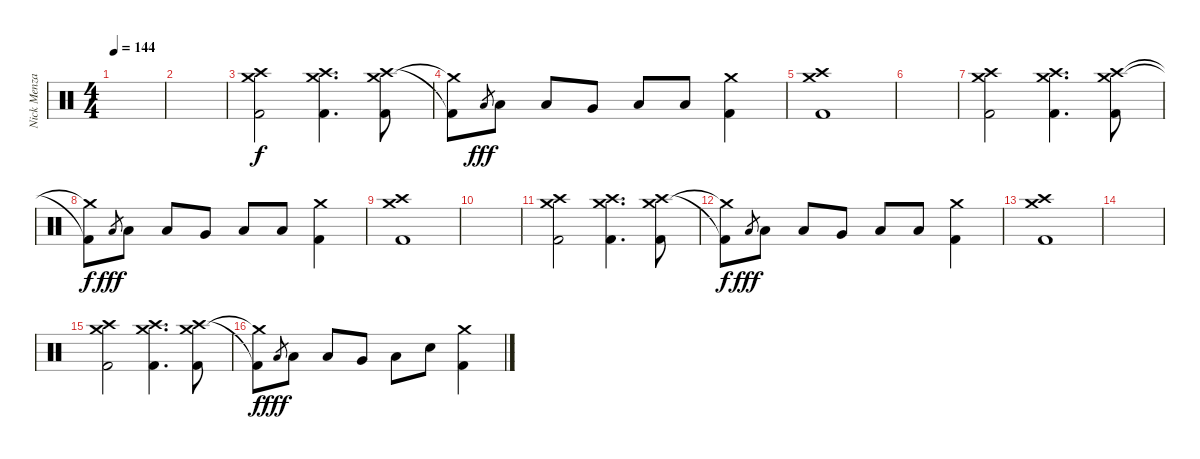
\track ("Nick Menza" "Nick Menza") {instrument percussion}
\staff {score}
\articulation defaults
\ts (4 4)
\tempo 144
\clef neutral
\ks c
|
|
("Crash high (hit)" "Crash medium (hit)" "Kick (hit) 2").2 ("Crash medium (hit)" "Crash high (hit)" "Kick (hit) 2").4{d} ("Crash high (hit)" "Crash medium (hit)" "Kick (hit) 2").8 |
("Kick (hit) 2"{t} "Crash medium (hit)"{t}).8{dy f} "Low Tom (hit)".8{gr dy fff} "Low Tom (hit)".8 "Low Tom (hit)".8 "Very Low Tom (hit)".8 "Low Floor Tom (hit)".8 "Low Floor Tom (hit)".8 ("Crash medium (hit)" "Kick (hit) 2").4 |
("Crash high (hit)" "Crash medium (hit)" "Kick (hit) 2").1 |
|
("Crash high (hit)" "Crash medium (hit)" "Kick (hit) 2").2 ("Crash medium (hit)" "Crash high (hit)" "Kick (hit) 2").4{d} ("Crash high (hit)" "Crash medium (hit)" "Kick (hit) 2").8 |
("Kick (hit) 2"{t} "Crash medium (hit)"{t}).8{dy f} "Low Tom (hit)".8{gr dy fff} "Low Tom (hit)".8 "Low Tom (hit)".8 "Very Low Tom (hit)".8 "Low Floor Tom (hit)".8 "Low Floor Tom (hit)".8 ("Crash medium (hit)" "Kick (hit) 2").4 |
("Crash high (hit)" "Crash medium (hit)" "Kick (hit) 2").1 |
|
("Crash high (hit)" "Crash medium (hit)" "Kick (hit) 2").2 ("Crash medium (hit)" "Crash high (hit)" "Kick (hit) 2").4{d} ("Crash high (hit)" "Crash medium (hit)" "Kick (hit) 2").8 |
("Kick (hit) 2"{t} "Crash medium (hit)"{t}).8{dy f} "Low Tom (hit)".8{gr dy fff} "Low Tom (hit)".8 "Low Tom (hit)".8 "Very Low Tom (hit)".8 "Low Floor Tom (hit)".8 "Low Floor Tom (hit)".8 ("Crash medium (hit)" "Kick (hit) 2").4 |
("Crash high (hit)" "Crash medium (hit)" "Kick (hit) 2").1 |
|
("Crash high (hit)" "Crash medium (hit)" "Kick (hit) 2").2 ("Crash medium (hit)" "Crash high (hit)" "Kick (hit) 2").4{d} ("Crash high (hit)" "Crash medium (hit)" "Kick (hit) 2").8 |
("Kick (hit) 2"{t} "Crash medium (hit)"{t}).8{dy f} "Low Tom (hit)".8{gr dy fff} "Low Tom (hit)".8 "Low Tom (hit)".8 "Very Low Tom (hit)".8 "Low Floor Tom (hit)".8 "Electric Snare (hit)".8 ("Crash medium (hit)" "Kick (hit) 2").4
